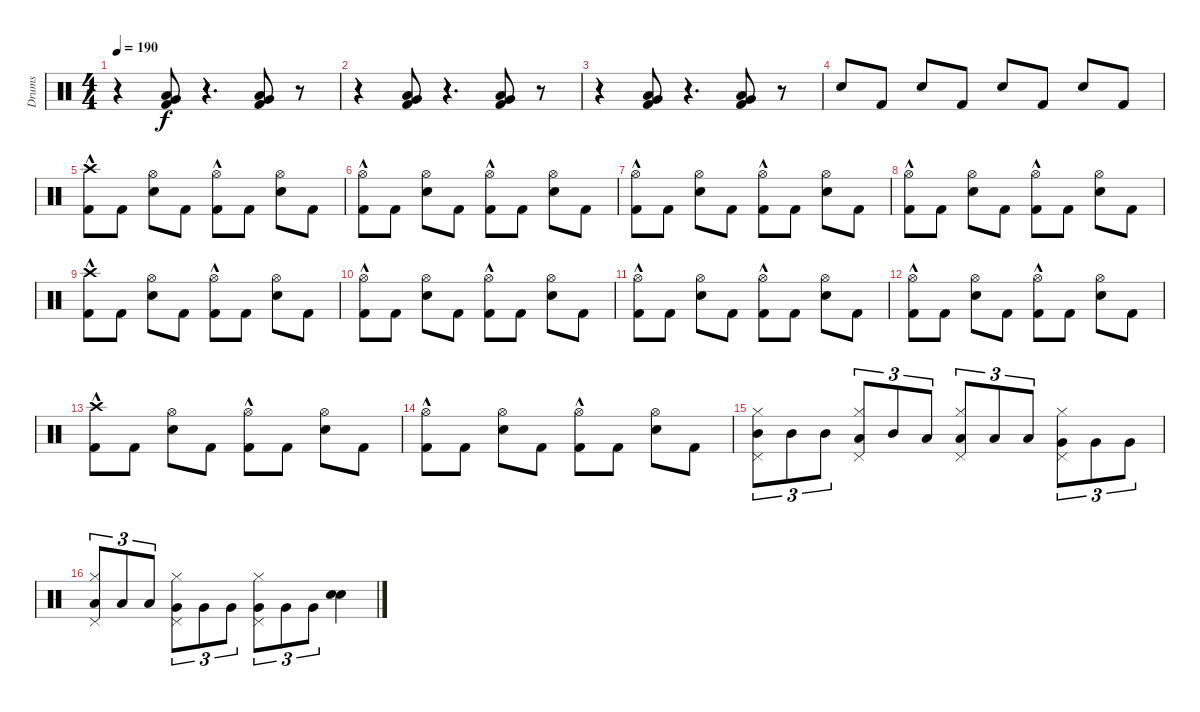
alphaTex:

\track ("Drums" "Drums") {instrument percussion}
\staff {score}
\articulation defaults
\ts (4 4)
\tempo 190
\clef neutral
\ks c
r.4{dy f} ("Kick (hit) 2" "Very Low Tom (hit)" "Low Floor Tom (hit)").8 r.4{d} ("Kick (hit) 2" "Low Floor Tom (hit)" "Very Low Tom (hit)").8 r.8 |
r.4 ("Kick (hit) 2" "Very Low Tom (hit)" "Low Floor Tom (hit)").8 r.4{d} ("Kick (hit) 2" "Low Floor Tom (hit)" "Very Low Tom (hit)").8 r.8 |
r.4 ("Kick (hit) 2" "Very Low Tom (hit)" "Low Floor Tom (hit)").8 r.4{d} ("Kick (hit) 2" "Low Floor Tom (hit)" "Very Low Tom (hit)").8 r.8 |
"Snare (hit) 2".8 "Kick (hit) 2".8 "Snare (hit) 2".8 "Kick (hit) 2".8 "Snare (hit) 2".8 "Kick (hit) 2".8 "Snare (hit) 2".8 "Kick (hit) 2".8 |
("Crash high (hit)" "Kick (hit) 2"{hac}).8 "Kick (hit) 2".8 ("Hi-Hat (open)" "Snare (hit) 2").8 "Kick (hit) 2".8 ("Hi-Hat (open)" "Kick (hit) 2"{hac}).8 "Kick (hit) 2".8 ("Hi-Hat (open)" "Snare (hit) 2").8 "Kick (hit) 2".8 |
("Hi-Hat (open)" "Kick (hit) 2"{hac}).8 "Kick (hit) 2".8 ("Hi-Hat (open)" "Snare (hit) 2").8 "Kick (hit) 2".8 ("Hi-Hat (open)" "Kick (hit) 2"{hac}).8 "Kick (hit) 2".8 ("Hi-Hat (open)" "Snare (hit) 2").8 "Kick (hit) 2".8 |
("Hi-Hat (open)" "Kick (hit) 2"{hac}).8 "Kick (hit) 2".8 ("Hi-Hat (open)" "Snare (hit) 2").8 "Kick (hit) 2".8 ("Hi-Hat (open)" "Kick (hit) 2"{hac}).8 "Kick (hit) 2".8 ("Hi-Hat (open)" "Snare (hit) 2").8 "Kick (hit) 2".8 |
("Hi-Hat (open)" "Kick (hit) 2"{hac}).8 "Kick (hit) 2".8 ("Hi-Hat (open)" "Snare (hit) 2").8 "Kick (hit) 2".8 ("Hi-Hat (open)" "Kick (hit) 2"{hac}).8 "Kick (hit) 2".8 ("Hi-Hat (open)" "Snare (hit) 2").8 "Kick (hit) 2".8 |
("Crash high (hit)" "Kick (hit) 2"{hac}).8 "Kick (hit) 2".8 ("Hi-Hat (open)" "Snare (hit) 2").8 "Kick (hit) 2".8 ("Hi-Hat (open)" "Kick (hit) 2"{hac}).8 "Kick (hit) 2".8 ("Hi-Hat (open)" "Snare (hit) 2").8 "Kick (hit) 2".8 |
("Hi-Hat (open)" "Kick (hit) 2"{hac}).8 "Kick (hit) 2".8 ("Hi-Hat (open)" "Snare (hit) 2").8 "Kick (hit) 2".8 ("Hi-Hat (open)" "Kick (hit) 2"{hac}).8 "Kick (hit) 2".8 ("Hi-Hat (open)" "Snare (hit) 2").8 "Kick (hit) 2".8 |
("Hi-Hat (open)" "Kick (hit) 2"{hac}).8 "Kick (hit) 2".8 ("Hi-Hat (open)" "Snare (hit) 2").8 "Kick (hit) 2".8 ("Hi-Hat (open)" "Kick (hit) 2"{hac}).8 "Kick (hit) 2".8 ("Hi-Hat (open)" "Snare (hit) 2").8 "Kick (hit) 2".8 |
("Hi-Hat (open)" "Kick (hit) 2"{hac}).8 "Kick (hit) 2".8 ("Hi-Hat (open)" "Snare (hit) 2").8 "Kick (hit) 2".8 ("Hi-Hat (open)" "Kick (hit) 2"{hac}).8 "Kick (hit) 2".8 ("Hi-Hat (open)" "Snare (hit) 2").8 "Kick (hit) 2".8 |
("Crash high (hit)" "Kick (hit) 2"{hac}).8 "Kick (hit) 2".8 ("Hi-Hat (open)" "Snare (hit) 2").8 "Kick (hit) 2".8 ("Hi-Hat (open)" "Kick (hit) 2"{hac}).8 "Kick (hit) 2".8 ("Hi-Hat (open)" "Snare (hit) 2").8 "Kick (hit) 2".8 |
("Hi-Hat (open)" "Kick (hit) 2"{hac}).8 "Kick (hit) 2".8 ("Hi-Hat (open)" "Snare (hit) 2").8 "Kick (hit) 2".8 ("Hi-Hat (open)" "Kick (hit) 2"{hac}).8 "Kick (hit) 2".8 ("Hi-Hat (open)" "Snare (hit) 2").8 "Kick (hit) 2".8 |
("Mid Tom (hit)" "Pedal Hi-Hat (hit)" "Hi-Hat (closed)").8{tu (3 2)} "Mid Tom (hit)".8{tu (3 2)} "Mid Tom (hit)".8{tu (3 2)} ("Low Tom (hit)" "Pedal Hi-Hat (hit)" "Hi-Hat (closed)").8{tu (3 2)} "Mid Tom (hit)".8{tu (3 2)} "Low Tom (hit)".8{tu (3 2)} ("Low Tom (hit)" "Pedal Hi-Hat (hit)" "Hi-Hat (closed)").8{tu (3 2)} "Low Tom (hit)".8{tu (3 2)} "Low Tom (hit)".8{tu (3 2)} ("Very Low Tom (hit)" "Pedal Hi-Hat (hit)" "Hi-Hat (closed)").8{tu (3 2)} "Very Low Tom (hit)".8{tu (3 2)} "Very Low Tom (hit)".8{tu (3 2)} |
("Low Tom (hit)" "Pedal Hi-Hat (hit)" "Hi-Hat (closed)").8{tu (3 2)} "Low Tom (hit)".8{tu (3 2)} "Low Tom (hit)".8{tu (3 2)} ("Very Low Tom (hit)" "Pedal Hi-Hat (hit)" "Hi-Hat (closed)").8{tu (3 2)} "Very Low Tom (hit)".8{tu (3 2)} "Very Low Tom (hit)".8{tu (3 2)} ("Very Low Tom (hit)" "Pedal Hi-Hat (hit)" "Hi-Hat (closed)").8{tu (3 2)} "Very Low Tom (hit)".8{tu (3 2)} "Very Low Tom (hit)".8{tu (3 2)} ("Snare (hit) 2" "Snare (hit) 2").4
